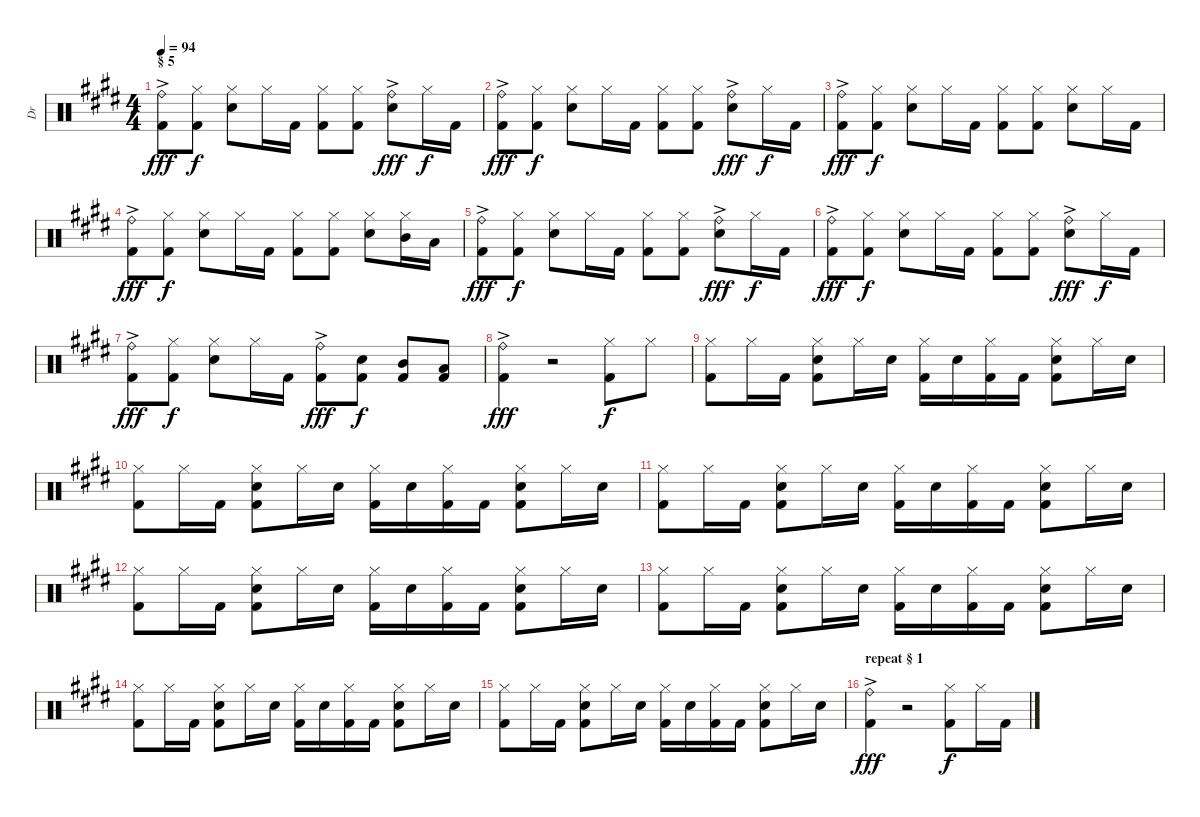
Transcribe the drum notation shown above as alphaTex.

\track ("Dr" "Dr") {instrument percussion}
\staff {score}
\articulation defaults
\ts (4 4)
\section ("" "§ 5")
\tempo 94
\clef neutral
\ks e
("Ride (bell)"{ac} "Kick (hit) 2"{ac}).8{dy fff} ("Hi-Hat (closed)" "Kick (hit) 2").8{dy f} ("Hi-Hat (closed)" "Electric Snare (hit)").8 "Hi-Hat (closed)".16 "Kick (hit) 2".16 ("Hi-Hat (closed)" "Kick (hit) 2").8 ("Hi-Hat (closed)" "Kick (hit) 2").8 ("Ride (bell)"{ac} "Electric Snare (hit)"{ac}).8{dy fff} "Hi-Hat (closed)".16{dy f} "Kick (hit) 2".16 |
("Ride (bell)"{ac} "Kick (hit) 2"{ac}).8{dy fff} ("Hi-Hat (closed)" "Kick (hit) 2").8{dy f} ("Hi-Hat (closed)" "Electric Snare (hit)").8 "Hi-Hat (closed)".16 "Kick (hit) 2".16 ("Hi-Hat (closed)" "Kick (hit) 2").8 ("Hi-Hat (closed)" "Kick (hit) 2").8 ("Ride (bell)"{ac} "Electric Snare (hit)"{ac}).8{dy fff} "Hi-Hat (closed)".16{dy f} "Kick (hit) 2".16 |
("Ride (bell)"{ac} "Kick (hit) 2"{ac}).8{dy fff} ("Hi-Hat (closed)" "Kick (hit) 2").8{dy f} ("Hi-Hat (closed)" "Electric Snare (hit)").8 "Hi-Hat (closed)".16 "Kick (hit) 2".16 ("Hi-Hat (closed)" "Kick (hit) 2").8 ("Hi-Hat (closed)" "Kick (hit) 2").8 ("Hi-Hat (closed)" "Electric Snare (hit)").8 "Hi-Hat (closed)".16 "Kick (hit) 2".16 |
("Ride (bell)"{ac} "Kick (hit) 2"{ac}).8{dy fff} ("Hi-Hat (closed)" "Kick (hit) 2").8{dy f} ("Hi-Hat (closed)" "Electric Snare (hit)").8 "Hi-Hat (closed)".16 "Kick (hit) 2".16 ("Hi-Hat (closed)" "Kick (hit) 2").8 ("Hi-Hat (closed)" "Kick (hit) 2").8 ("Hi-Hat (closed)" "Electric Snare (hit)").8 ("Hi-Hat (closed)" "Mid Tom (hit)").16 "Low Tom (hit)".16 |
("Ride (bell)"{ac} "Kick (hit) 2"{ac}).8{dy fff} ("Hi-Hat (closed)" "Kick (hit) 2").8{dy f} ("Hi-Hat (closed)" "Electric Snare (hit)").8 "Hi-Hat (closed)".16 "Kick (hit) 2".16 ("Hi-Hat (closed)" "Kick (hit) 2").8 ("Hi-Hat (closed)" "Kick (hit) 2").8 ("Ride (bell)"{ac} "Electric Snare (hit)"{ac}).8{dy fff} "Hi-Hat (closed)".16{dy f} "Kick (hit) 2".16 |
("Ride (bell)"{ac} "Kick (hit) 2"{ac}).8{dy fff} ("Hi-Hat (closed)" "Kick (hit) 2").8{dy f} ("Hi-Hat (closed)" "Electric Snare (hit)").8 "Hi-Hat (closed)".16 "Kick (hit) 2".16 ("Hi-Hat (closed)" "Kick (hit) 2").8 ("Hi-Hat (closed)" "Kick (hit) 2").8 ("Ride (bell)"{ac} "Electric Snare (hit)"{ac}).8{dy fff} "Hi-Hat (closed)".16{dy f} "Kick (hit) 2".16 |
("Ride (bell)"{ac} "Kick (hit) 2"{ac}).8{dy fff} ("Hi-Hat (closed)" "Kick (hit) 2").8{dy f} ("Hi-Hat (closed)" "Electric Snare (hit)").8 "Hi-Hat (closed)".16 "Kick (hit) 2".16 ("Ride (bell)"{ac} "Kick (hit) 2"{ac}).8{dy fff} ("Electric Snare (hit)" "Kick (hit) 2").8{dy f} ("Mid Tom (hit)" "Kick (hit) 2").8 ("Low Tom (hit)" "Kick (hit) 2").8 |
("Ride (bell)"{ac} "Kick (hit) 2"{ac}).4{dy fff} r.2 ("Hi-Hat (closed)" "Kick (hit) 2").8{dy f} "Hi-Hat (closed)".8 |
("Hi-Hat (closed)" "Kick (hit) 2").8 "Hi-Hat (closed)".16 "Kick (hit) 2".16 ("Hi-Hat (closed)" "Electric Snare (hit)" "Kick (hit) 2").8 "Hi-Hat (closed)".16 "Electric Snare (hit)".16 ("Hi-Hat (closed)" "Kick (hit) 2").16 "Electric Snare (hit)".16 ("Hi-Hat (closed)" "Kick (hit) 2").16 "Kick (hit) 2".16 ("Hi-Hat (closed)" "Electric Snare (hit)" "Kick (hit) 2").8 "Hi-Hat (closed)".16 "Electric Snare (hit)".16 |
("Hi-Hat (closed)" "Kick (hit) 2").8 "Hi-Hat (closed)".16 "Kick (hit) 2".16 ("Hi-Hat (closed)" "Electric Snare (hit)" "Kick (hit) 2").8 "Hi-Hat (closed)".16 "Electric Snare (hit)".16 ("Hi-Hat (closed)" "Kick (hit) 2").16 "Electric Snare (hit)".16 ("Hi-Hat (closed)" "Kick (hit) 2").16 "Kick (hit) 2".16 ("Hi-Hat (closed)" "Electric Snare (hit)" "Kick (hit) 2").8 "Hi-Hat (closed)".16 "Electric Snare (hit)".16 |
("Hi-Hat (closed)" "Kick (hit) 2").8 "Hi-Hat (closed)".16 "Kick (hit) 2".16 ("Hi-Hat (closed)" "Electric Snare (hit)" "Kick (hit) 2").8 "Hi-Hat (closed)".16 "Electric Snare (hit)".16 ("Hi-Hat (closed)" "Kick (hit) 2").16 "Electric Snare (hit)".16 ("Hi-Hat (closed)" "Kick (hit) 2").16 "Kick (hit) 2".16 ("Hi-Hat (closed)" "Electric Snare (hit)" "Kick (hit) 2").8 "Hi-Hat (closed)".16 "Electric Snare (hit)".16 |
("Hi-Hat (closed)" "Kick (hit) 2").8 "Hi-Hat (closed)".16 "Kick (hit) 2".16 ("Hi-Hat (closed)" "Electric Snare (hit)" "Kick (hit) 2").8 "Hi-Hat (closed)".16 "Electric Snare (hit)".16 ("Hi-Hat (closed)" "Kick (hit) 2").16 "Electric Snare (hit)".16 ("Hi-Hat (closed)" "Kick (hit) 2").16 "Kick (hit) 2".16 ("Hi-Hat (closed)" "Electric Snare (hit)" "Kick (hit) 2").8 "Hi-Hat (closed)".16 "Electric Snare (hit)".16 |
("Hi-Hat (closed)" "Kick (hit) 2").8 "Hi-Hat (closed)".16 "Kick (hit) 2".16 ("Hi-Hat (closed)" "Electric Snare (hit)" "Kick (hit) 2").8 "Hi-Hat (closed)".16 "Electric Snare (hit)".16 ("Hi-Hat (closed)" "Kick (hit) 2").16 "Electric Snare (hit)".16 ("Hi-Hat (closed)" "Kick (hit) 2").16 "Kick (hit) 2".16 ("Hi-Hat (closed)" "Electric Snare (hit)" "Kick (hit) 2").8 "Hi-Hat (closed)".16 "Electric Snare (hit)".16 |
("Hi-Hat (closed)" "Kick (hit) 2").8 "Hi-Hat (closed)".16 "Kick (hit) 2".16 ("Hi-Hat (closed)" "Electric Snare (hit)" "Kick (hit) 2").8 "Hi-Hat (closed)".16 "Electric Snare (hit)".16 ("Hi-Hat (closed)" "Kick (hit) 2").16 "Electric Snare (hit)".16 ("Hi-Hat (closed)" "Kick (hit) 2").16 "Kick (hit) 2".16 ("Hi-Hat (closed)" "Electric Snare (hit)" "Kick (hit) 2").8 "Hi-Hat (closed)".16 "Electric Snare (hit)".16 |
("Hi-Hat (closed)" "Kick (hit) 2").8 "Hi-Hat (closed)".16 "Kick (hit) 2".16 ("Hi-Hat (closed)" "Electric Snare (hit)" "Kick (hit) 2").8 "Hi-Hat (closed)".16 "Electric Snare (hit)".16 ("Hi-Hat (closed)" "Kick (hit) 2").16 "Electric Snare (hit)".16 ("Hi-Hat (closed)" "Kick (hit) 2").16 "Kick (hit) 2".16 ("Hi-Hat (closed)" "Electric Snare (hit)" "Kick (hit) 2").8 "Hi-Hat (closed)".16 "Electric Snare (hit)".16 |
\section ("" "repeat § 1")
("Ride (bell)"{ac} "Kick (hit) 2"{ac}).4{dy fff} r.2 ("Hi-Hat (closed)" "Kick (hit) 2").8{dy f} "Hi-Hat (closed)".16 "Kick (hit) 2".16
